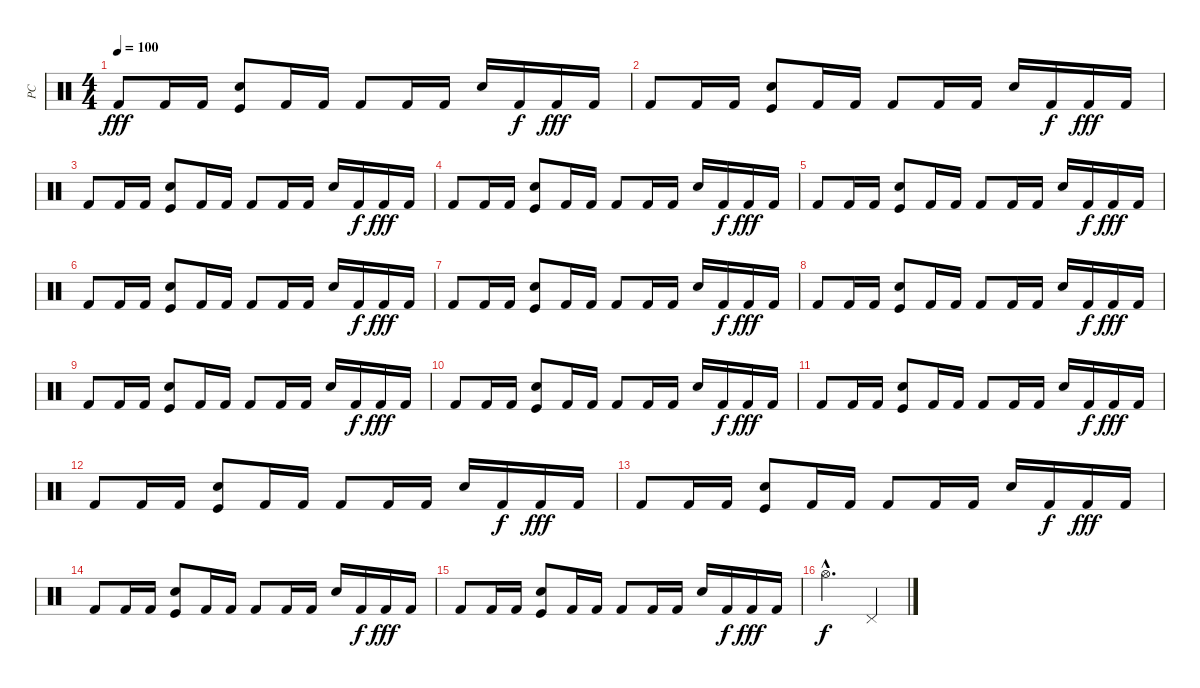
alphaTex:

\track ("PC" "PC") {instrument percussion}
\staff {score}
\articulation defaults
\ts (4 4)
\tempo 100
\clef neutral
\ks c "Kick (hit) 2".8{dy fff} "Kick (hit) 2".16 "Kick (hit) 2".16
("Kick (hit)" "Electric Snare (hit)").8 "Kick (hit) 2".16 "Kick (hit) 2".16 "Kick (hit) 2".8 "Kick (hit) 2".16 "Kick (hit) 2".16 "Electric Snare (hit)".16 "Kick (hit) 2".16{dy f} "Kick (hit) 2".16{dy fff} "Kick (hit) 2".16 |
"Kick (hit) 2".8 "Kick (hit) 2".16 "Kick (hit) 2".16 ("Kick (hit)" "Electric Snare (hit)").8 "Kick (hit) 2".16 "Kick (hit) 2".16 "Kick (hit) 2".8 "Kick (hit) 2".16 "Kick (hit) 2".16 "Electric Snare (hit)".16 "Kick (hit) 2".16{dy f} "Kick (hit) 2".16{dy fff} "Kick (hit) 2".16 |
"Kick (hit) 2".8 "Kick (hit) 2".16 "Kick (hit) 2".16 ("Kick (hit)" "Electric Snare (hit)").8 "Kick (hit) 2".16 "Kick (hit) 2".16 "Kick (hit) 2".8 "Kick (hit) 2".16 "Kick (hit) 2".16 "Electric Snare (hit)".16 "Kick (hit) 2".16{dy f} "Kick (hit) 2".16{dy fff} "Kick (hit) 2".16 |
"Kick (hit) 2".8 "Kick (hit) 2".16 "Kick (hit) 2".16 ("Kick (hit)" "Electric Snare (hit)").8 "Kick (hit) 2".16 "Kick (hit) 2".16 "Kick (hit) 2".8 "Kick (hit) 2".16 "Kick (hit) 2".16 "Electric Snare (hit)".16 "Kick (hit) 2".16{dy f} "Kick (hit) 2".16{dy fff} "Kick (hit) 2".16 |
"Kick (hit) 2".8 "Kick (hit) 2".16 "Kick (hit) 2".16 ("Kick (hit)" "Electric Snare (hit)").8 "Kick (hit) 2".16 "Kick (hit) 2".16 "Kick (hit) 2".8 "Kick (hit) 2".16 "Kick (hit) 2".16 "Electric Snare (hit)".16 "Kick (hit) 2".16{dy f} "Kick (hit) 2".16{dy fff} "Kick (hit) 2".16 |
"Kick (hit) 2".8 "Kick (hit) 2".16 "Kick (hit) 2".16 ("Kick (hit)" "Electric Snare (hit)").8 "Kick (hit) 2".16 "Kick (hit) 2".16 "Kick (hit) 2".8 "Kick (hit) 2".16 "Kick (hit) 2".16 "Electric Snare (hit)".16 "Kick (hit) 2".16{dy f} "Kick (hit) 2".16{dy fff} "Kick (hit) 2".16 |
"Kick (hit) 2".8 "Kick (hit) 2".16 "Kick (hit) 2".16 ("Kick (hit)" "Electric Snare (hit)").8 "Kick (hit) 2".16 "Kick (hit) 2".16 "Kick (hit) 2".8 "Kick (hit) 2".16 "Kick (hit) 2".16 "Electric Snare (hit)".16 "Kick (hit) 2".16{dy f} "Kick (hit) 2".16{dy fff} "Kick (hit) 2".16 |
"Kick (hit) 2".8 "Kick (hit) 2".16 "Kick (hit) 2".16 ("Kick (hit)" "Electric Snare (hit)").8 "Kick (hit) 2".16 "Kick (hit) 2".16 "Kick (hit) 2".8 "Kick (hit) 2".16 "Kick (hit) 2".16 "Electric Snare (hit)".16 "Kick (hit) 2".16{dy f} "Kick (hit) 2".16{dy fff} "Kick (hit) 2".16 |
"Kick (hit) 2".8 "Kick (hit) 2".16 "Kick (hit) 2".16 ("Kick (hit)" "Electric Snare (hit)").8 "Kick (hit) 2".16 "Kick (hit) 2".16 "Kick (hit) 2".8 "Kick (hit) 2".16 "Kick (hit) 2".16 "Electric Snare (hit)".16 "Kick (hit) 2".16{dy f} "Kick (hit) 2".16{dy fff} "Kick (hit) 2".16 |
"Kick (hit) 2".8 "Kick (hit) 2".16 "Kick (hit) 2".16 ("Kick (hit)" "Electric Snare (hit)").8 "Kick (hit) 2".16 "Kick (hit) 2".16 "Kick (hit) 2".8 "Kick (hit) 2".16 "Kick (hit) 2".16 "Electric Snare (hit)".16 "Kick (hit) 2".16{dy f} "Kick (hit) 2".16{dy fff} "Kick (hit) 2".16 |
"Kick (hit) 2".8 "Kick (hit) 2".16 "Kick (hit) 2".16 ("Kick (hit)" "Electric Snare (hit)").8 "Kick (hit) 2".16 "Kick (hit) 2".16 "Kick (hit) 2".8 "Kick (hit) 2".16 "Kick (hit) 2".16 "Electric Snare (hit)".16 "Kick (hit) 2".16{dy f} "Kick (hit) 2".16{dy fff} "Kick (hit) 2".16 |
"Kick (hit) 2".8 "Kick (hit) 2".16 "Kick (hit) 2".16 ("Kick (hit)" "Electric Snare (hit)").8 "Kick (hit) 2".16 "Kick (hit) 2".16 "Kick (hit) 2".8 "Kick (hit) 2".16 "Kick (hit) 2".16 "Electric Snare (hit)".16 "Kick (hit) 2".16{dy f} "Kick (hit) 2".16{dy fff} "Kick (hit) 2".16 |
"Kick (hit) 2".8 "Kick (hit) 2".16 "Kick (hit) 2".16 ("Kick (hit)" "Electric Snare (hit)").8 "Kick (hit) 2".16 "Kick (hit) 2".16 "Kick (hit) 2".8 "Kick (hit) 2".16 "Kick (hit) 2".16 "Electric Snare (hit)".16 "Kick (hit) 2".16{dy f} "Kick (hit) 2".16{dy fff} "Kick (hit) 2".16 |
"Kick (hit) 2".8 "Kick (hit) 2".16 "Kick (hit) 2".16 ("Kick (hit)" "Electric Snare (hit)").8 "Kick (hit) 2".16 "Kick (hit) 2".16 "Kick (hit) 2".8 "Kick (hit) 2".16 "Kick (hit) 2".16 "Electric Snare (hit)".16 "Kick (hit) 2".16{dy f} "Kick (hit) 2".16{dy fff} "Kick (hit) 2".16 |
"Kick (hit) 2".8 "Kick (hit) 2".16 "Kick (hit) 2".16 ("Kick (hit)" "Electric Snare (hit)").8 "Kick (hit) 2".16 "Kick (hit) 2".16 "Kick (hit) 2".8 "Kick (hit) 2".16 "Kick (hit) 2".16 "Electric Snare (hit)".16 "Kick (hit) 2".16{dy f} "Kick (hit) 2".16{dy fff} "Kick (hit) 2".16 |
"Hi-Hat (open)"{hac}.2{d dy f} "Pedal Hi-Hat (hit)".4
